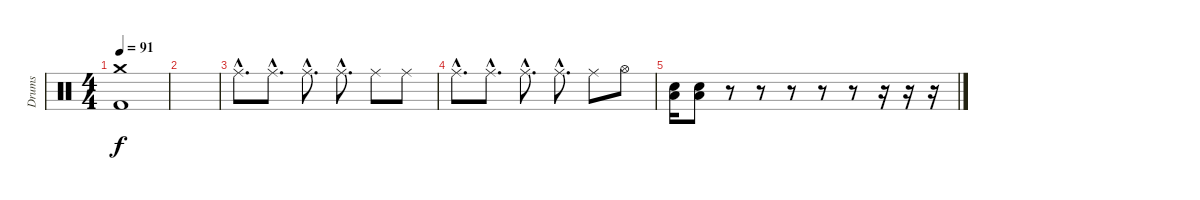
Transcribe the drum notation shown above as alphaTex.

\track ("Drums" "Drums") {instrument percussion}
\staff {score}
\articulation defaults
\ts (4 4)
\tempo 91
\clef neutral
\ks c
("Crash medium (hit)" "Kick (hit) 2").1{dy f} |
|
"Ride (middle)"{hac}.8{d} "Ride (middle)"{hac}.8{d} "Ride (middle)"{hac}.8{d} "Ride (middle)"{hac}.8{d} "Ride (middle)".8 "Ride (middle)".8 |
"Ride (middle)"{hac}.8{d} "Ride (middle)"{hac}.8{d} "Ride (middle)"{hac}.8{d} "Ride (middle)"{hac}.8{d} "Ride (middle)".8 "Hi-Hat (open)".8 |
("Low Floor Tom (hit)" "Electric Snare (hit)").16 ("Low Floor Tom (hit)" "Electric Snare (hit)").8 r.8 r.8 r.8 r.8 r.8 r.16 r.16 r.16
